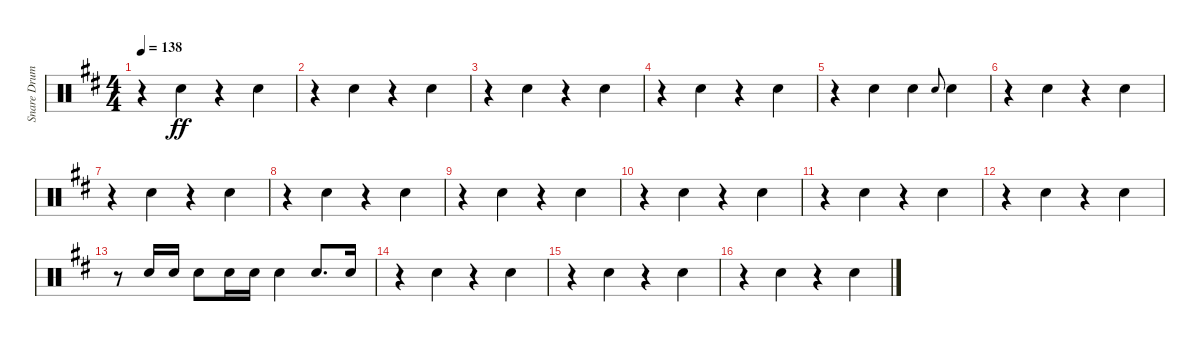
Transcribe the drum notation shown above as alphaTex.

\track ("Snare Drum" "Snare Drum") {instrument percussion}
\staff {score}
\articulation defaults
\ts (4 4)
\tempo 138
\clef neutral
\ks d
r.4{dy ff} "Electric Snare (hit)".4 r.4 "Electric Snare (hit)".4 |
r.4{beam merge} "Electric Snare (hit)".4 r.4 "Electric Snare (hit)".4 |
r.4 "Electric Snare (hit)".4 r.4 "Electric Snare (hit)".4 |
r.4 "Electric Snare (hit)".4 r.4 "Electric Snare (hit)".4 |
r.4 "Electric Snare (hit)".4 "Electric Snare (hit)".4 "Electric Snare (hit)".8{gr onbeat} "Electric Snare (hit)".4 |
r.4 "Electric Snare (hit)".4 r.4 "Electric Snare (hit)".4 |
r.4 "Electric Snare (hit)".4 r.4 "Electric Snare (hit)".4 |
r.4 "Electric Snare (hit)".4 r.4 "Electric Snare (hit)".4 |
r.4 "Electric Snare (hit)".4 r.4 "Electric Snare (hit)".4 |
r.4 "Electric Snare (hit)".4 r.4 "Electric Snare (hit)".4 |
r.4 "Electric Snare (hit)".4 r.4 "Electric Snare (hit)".4 |
r.4 "Electric Snare (hit)".4 r.4 "Electric Snare (hit)".4 |
r.8{beam Up} "Electric Snare (hit)".16{beam Down} "Electric Snare (hit)".16{beam Down} "Electric Snare (hit)".8{beam Down} "Electric Snare (hit)".16{beam Down} "Electric Snare (hit)".16{beam Down} "Electric Snare (hit)".4 "Electric Snare (hit)".8{d beam Up} "Electric Snare (hit)".16{beam Up} |
r.4 "Electric Snare (hit)".4 r.4 "Electric Snare (hit)".4 |
r.4 "Electric Snare (hit)".4 r.4 "Electric Snare (hit)".4 |
r.4 "Electric Snare (hit)".4 r.4 "Electric Snare (hit)".4
